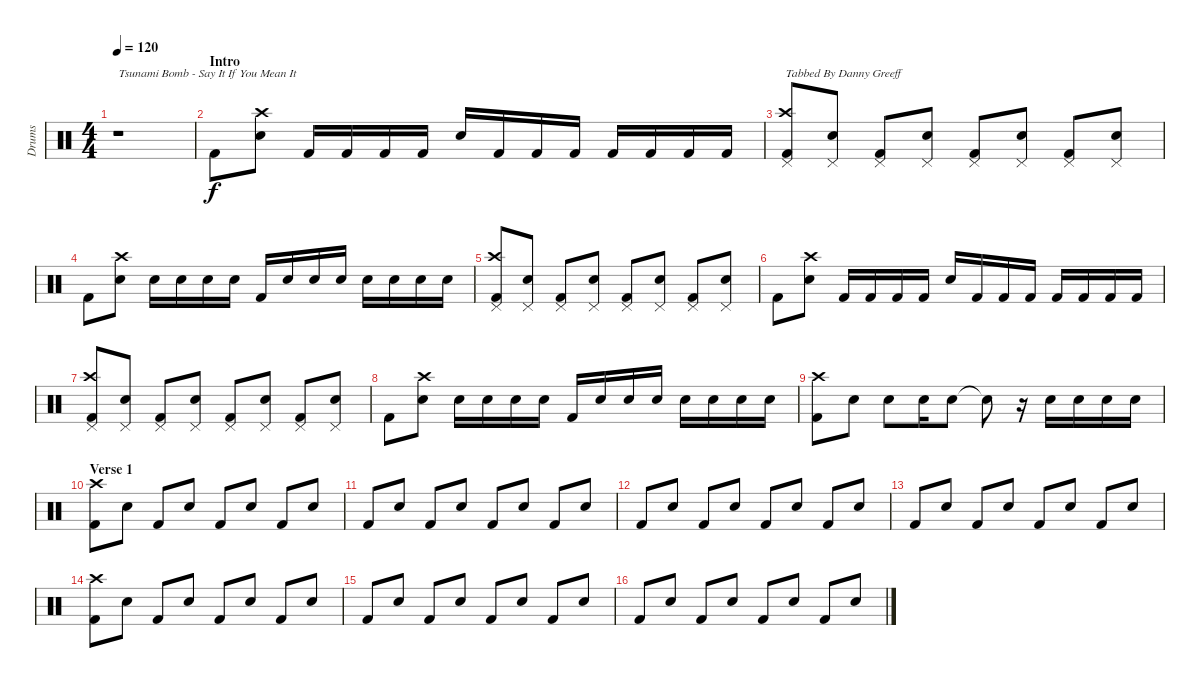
\track ("Drums" "Drums") {instrument percussion}
\staff {score}
\articulation defaults
\ts (4 4)
\tempo 120
\clef neutral
\ks c
r.1{txt "Tsunami Bomb - Say It If You Mean It" dy f} |
\section ("" "Intro")
"Kick (hit) 2".8 ("Crash high (hit)" "Snare (hit) 2").8 "Kick (hit) 2".16 "Kick (hit) 2".16 "Kick (hit) 2".16 "Kick (hit) 2".16 "Snare (hit) 2".16 "Kick (hit) 2".16 "Kick (hit) 2".16 "Kick (hit) 2".16 "Kick (hit) 2".16 "Kick (hit) 2".16 "Kick (hit) 2".16 "Kick (hit) 2".16 |
("Crash high (hit)" "Pedal Hi-Hat (hit)" "Kick (hit) 2").8{txt "Tabbed By Danny Greeff"} ("Pedal Hi-Hat (hit)" "Snare (hit) 2").8 ("Pedal Hi-Hat (hit)" "Kick (hit) 2").8 ("Pedal Hi-Hat (hit)" "Snare (hit) 2").8 ("Pedal Hi-Hat (hit)" "Kick (hit) 2").8 ("Pedal Hi-Hat (hit)" "Snare (hit) 2").8 ("Pedal Hi-Hat (hit)" "Kick (hit) 2").8 ("Pedal Hi-Hat (hit)" "Snare (hit) 2").8 |
"Kick (hit) 2".8 ("Crash high (hit)" "Snare (hit) 2").8 "Snare (hit) 2".16 "Snare (hit) 2".16 "Snare (hit) 2".16 "Snare (hit) 2".16 "Kick (hit) 2".16 "Snare (hit) 2".16 "Snare (hit) 2".16 "Snare (hit) 2".16 "Snare (hit) 2".16 "Snare (hit) 2".16 "Snare (hit) 2".16 "Snare (hit) 2".16 |
("Crash high (hit)" "Pedal Hi-Hat (hit)" "Kick (hit) 2").8 ("Pedal Hi-Hat (hit)" "Snare (hit) 2").8 ("Pedal Hi-Hat (hit)" "Kick (hit) 2").8 ("Pedal Hi-Hat (hit)" "Snare (hit) 2").8 ("Pedal Hi-Hat (hit)" "Kick (hit) 2").8 ("Pedal Hi-Hat (hit)" "Snare (hit) 2").8 ("Pedal Hi-Hat (hit)" "Kick (hit) 2").8 ("Pedal Hi-Hat (hit)" "Snare (hit) 2").8 |
"Kick (hit) 2".8 ("Crash high (hit)" "Snare (hit) 2").8 "Kick (hit) 2".16 "Kick (hit) 2".16 "Kick (hit) 2".16 "Kick (hit) 2".16 "Snare (hit) 2".16 "Kick (hit) 2".16 "Kick (hit) 2".16 "Kick (hit) 2".16 "Kick (hit) 2".16 "Kick (hit) 2".16 "Kick (hit) 2".16 "Kick (hit) 2".16 |
("Crash high (hit)" "Pedal Hi-Hat (hit)" "Kick (hit) 2").8 ("Pedal Hi-Hat (hit)" "Snare (hit) 2").8 ("Pedal Hi-Hat (hit)" "Kick (hit) 2").8 ("Pedal Hi-Hat (hit)" "Snare (hit) 2").8 ("Pedal Hi-Hat (hit)" "Kick (hit) 2").8 ("Pedal Hi-Hat (hit)" "Snare (hit) 2").8 ("Pedal Hi-Hat (hit)" "Kick (hit) 2").8 ("Pedal Hi-Hat (hit)" "Snare (hit) 2").8 |
"Kick (hit) 2".8 ("Crash high (hit)" "Snare (hit) 2").8 "Snare (hit) 2".16 "Snare (hit) 2".16 "Snare (hit) 2".16 "Snare (hit) 2".16 "Kick (hit) 2".16 "Snare (hit) 2".16 "Snare (hit) 2".16 "Snare (hit) 2".16 "Snare (hit) 2".16 "Snare (hit) 2".16 "Snare (hit) 2".16 "Snare (hit) 2".16 |
("Crash high (hit)" "Kick (hit) 2").8 "Snare (hit) 2".8 "Snare (hit) 2".8 "Snare (hit) 2".16 "Snare (hit) 2".8 "Snare (hit)"{t}.8 r.16 "Snare (hit) 2".16 "Snare (hit) 2".16 "Snare (hit) 2".16 "Snare (hit) 2".16 |
\section ("" "Verse 1")
("Crash high (hit)" "Kick (hit) 2").8 "Snare (hit) 2".8 "Kick (hit) 2".8 "Snare (hit) 2".8 "Kick (hit) 2".8 "Snare (hit) 2".8 "Kick (hit) 2".8 "Snare (hit) 2".8 |
"Kick (hit) 2".8 "Snare (hit) 2".8 "Kick (hit) 2".8 "Snare (hit) 2".8 "Kick (hit) 2".8 "Snare (hit) 2".8 "Kick (hit) 2".8 "Snare (hit) 2".8 |
"Kick (hit) 2".8 "Snare (hit) 2".8 "Kick (hit) 2".8 "Snare (hit) 2".8 "Kick (hit) 2".8 "Snare (hit) 2".8 "Kick (hit) 2".8 "Snare (hit) 2".8 |
"Kick (hit) 2".8 "Snare (hit) 2".8 "Kick (hit) 2".8 "Snare (hit) 2".8 "Kick (hit) 2".8 "Snare (hit) 2".8 "Kick (hit) 2".8 "Snare (hit) 2".8 |
("Crash high (hit)" "Kick (hit) 2").8 "Snare (hit) 2".8 "Kick (hit) 2".8 "Snare (hit) 2".8 "Kick (hit) 2".8 "Snare (hit) 2".8 "Kick (hit) 2".8 "Snare (hit) 2".8 |
"Kick (hit) 2".8 "Snare (hit) 2".8 "Kick (hit) 2".8 "Snare (hit) 2".8 "Kick (hit) 2".8 "Snare (hit) 2".8 "Kick (hit) 2".8 "Snare (hit) 2".8 |
"Kick (hit) 2".8 "Snare (hit) 2".8 "Kick (hit) 2".8 "Snare (hit) 2".8 "Kick (hit) 2".8 "Snare (hit) 2".8 "Kick (hit) 2".8 "Snare (hit) 2".8
